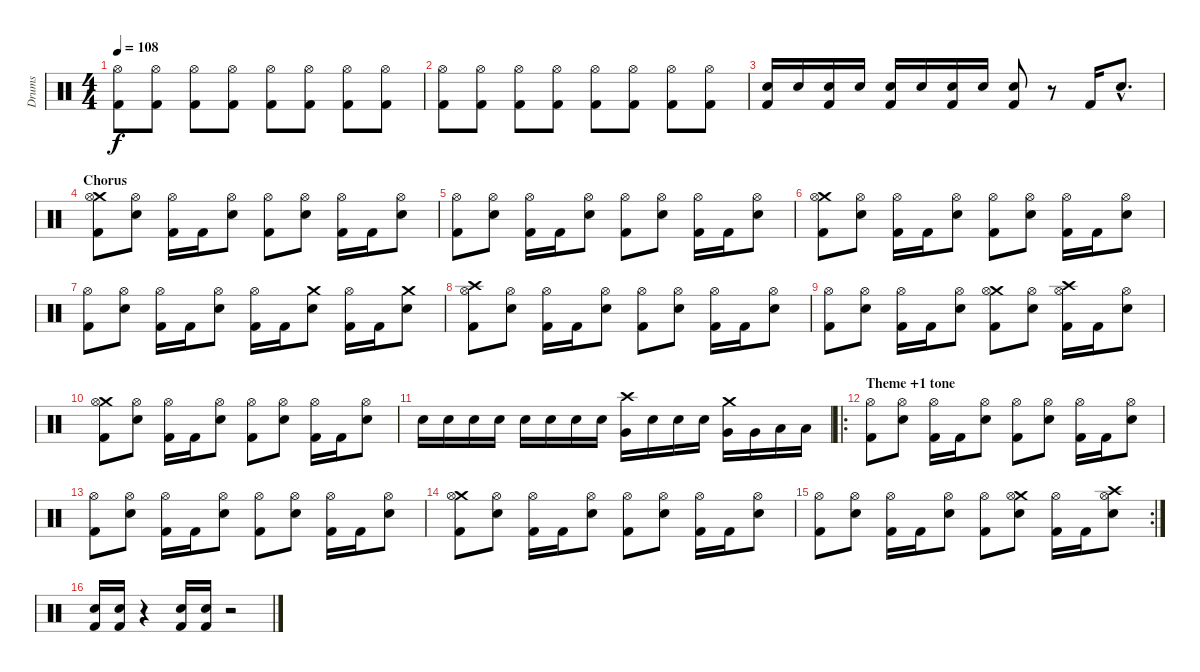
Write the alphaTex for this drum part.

\track ("Drums" "Drums") {instrument percussion}
\staff {score}
\articulation defaults
\ts (4 4)
\tempo 108
\clef neutral
\ks c
("Hi-Hat (open)" "Kick (hit) 2").8{dy f} ("Hi-Hat (open)" "Kick (hit) 2").8 ("Hi-Hat (open)" "Kick (hit) 2").8 ("Hi-Hat (open)" "Kick (hit) 2").8 ("Hi-Hat (open)" "Kick (hit) 2").8 ("Hi-Hat (open)" "Kick (hit) 2").8 ("Hi-Hat (open)" "Kick (hit) 2").8 ("Hi-Hat (open)" "Kick (hit) 2").8 |
("Hi-Hat (open)" "Kick (hit) 2").8 ("Hi-Hat (open)" "Kick (hit) 2").8 ("Hi-Hat (open)" "Kick (hit) 2").8 ("Hi-Hat (open)" "Kick (hit) 2").8 ("Hi-Hat (open)" "Kick (hit) 2").8 ("Hi-Hat (open)" "Kick (hit) 2").8 ("Hi-Hat (open)" "Kick (hit) 2").8 ("Hi-Hat (open)" "Kick (hit) 2").8 |
("Electric Snare (hit)" "Kick (hit) 2").16 "Electric Snare (hit)".16 ("Electric Snare (hit)" "Kick (hit) 2").16 "Electric Snare (hit)".16 ("Electric Snare (hit)" "Kick (hit) 2").16 "Electric Snare (hit)".16 ("Electric Snare (hit)" "Kick (hit) 2").16 "Electric Snare (hit)".16 ("Electric Snare (hit)" "Kick (hit) 2").8 r.8 "Kick (hit) 2".16 "Electric Snare (hit)"{hac}.8{d} |
\section ("" "Chorus")
("Crash medium (hit)" "Hi-Hat (open)" "Kick (hit) 2").8 ("Hi-Hat (open)" "Electric Snare (hit)").8 ("Hi-Hat (open)" "Kick (hit) 2").16 "Kick (hit) 2".16 ("Hi-Hat (open)" "Electric Snare (hit)").8 ("Hi-Hat (open)" "Kick (hit) 2").8 ("Hi-Hat (open)" "Electric Snare (hit)").8 ("Hi-Hat (open)" "Kick (hit) 2").16 "Kick (hit) 2".16 ("Hi-Hat (open)" "Electric Snare (hit)").8 |
("Hi-Hat (open)" "Kick (hit) 2").8 ("Hi-Hat (open)" "Electric Snare (hit)").8 ("Hi-Hat (open)" "Kick (hit) 2").16 "Kick (hit) 2".16 ("Hi-Hat (open)" "Electric Snare (hit)").8 ("Hi-Hat (open)" "Kick (hit) 2").8 ("Hi-Hat (open)" "Electric Snare (hit)").8 ("Hi-Hat (open)" "Kick (hit) 2").16 "Kick (hit) 2".16 ("Hi-Hat (open)" "Electric Snare (hit)").8 |
("Crash medium (hit)" "Hi-Hat (open)" "Kick (hit) 2").8 ("Hi-Hat (open)" "Electric Snare (hit)").8 ("Hi-Hat (open)" "Kick (hit) 2").16 "Kick (hit) 2".16 ("Hi-Hat (open)" "Electric Snare (hit)").8 ("Hi-Hat (open)" "Kick (hit) 2").8 ("Hi-Hat (open)" "Electric Snare (hit)").8 ("Hi-Hat (open)" "Kick (hit) 2").16 "Kick (hit) 2".16 ("Hi-Hat (open)" "Electric Snare (hit)").8 |
("Hi-Hat (open)" "Kick (hit) 2").8 ("Hi-Hat (open)" "Electric Snare (hit)").8 ("Hi-Hat (open)" "Kick (hit) 2").16 "Kick (hit) 2".16 ("Hi-Hat (open)" "Electric Snare (hit)").8 ("Hi-Hat (open)" "Kick (hit) 2").16 "Kick (hit) 2".16 ("Crash medium (hit)" "Electric Snare (hit)").8 ("Hi-Hat (open)" "Kick (hit) 2").16 "Kick (hit) 2".16 ("Crash medium (hit)" "Electric Snare (hit)").8 |
("Crash high (hit)" "Hi-Hat (open)" "Kick (hit) 2").8 ("Hi-Hat (open)" "Electric Snare (hit)").8 ("Hi-Hat (open)" "Kick (hit) 2").16 "Kick (hit) 2".16 ("Hi-Hat (open)" "Electric Snare (hit)").8 ("Hi-Hat (open)" "Kick (hit) 2").8 ("Hi-Hat (open)" "Electric Snare (hit)").8 ("Hi-Hat (open)" "Kick (hit) 2").16 "Kick (hit) 2".16 ("Hi-Hat (open)" "Electric Snare (hit)").8 |
("Hi-Hat (open)" "Kick (hit) 2").8 ("Hi-Hat (open)" "Electric Snare (hit)").8 ("Hi-Hat (open)" "Kick (hit) 2").16 "Kick (hit) 2".16 ("Hi-Hat (open)" "Electric Snare (hit)").8 ("Crash medium (hit)" "Hi-Hat (open)" "Kick (hit) 2").8 ("Hi-Hat (open)" "Electric Snare (hit)").8 ("Crash high (hit)" "Hi-Hat (open)" "Kick (hit) 2").16 "Kick (hit) 2".16 ("Hi-Hat (open)" "Electric Snare (hit)").8 |
("Crash medium (hit)" "Hi-Hat (open)" "Kick (hit) 2").8 ("Hi-Hat (open)" "Electric Snare (hit)").8 ("Hi-Hat (open)" "Kick (hit) 2").16 "Kick (hit) 2".16 ("Hi-Hat (open)" "Electric Snare (hit)").8 ("Hi-Hat (open)" "Kick (hit) 2").8 ("Hi-Hat (open)" "Electric Snare (hit)").8 ("Hi-Hat (open)" "Kick (hit) 2").16 "Kick (hit) 2".16 ("Hi-Hat (open)" "Electric Snare (hit)").8 |
"Electric Snare (hit)".16 "Electric Snare (hit)".16 "Electric Snare (hit)".16 "Electric Snare (hit)".16 "Electric Snare (hit)".16 "Electric Snare (hit)".16 "Electric Snare (hit)".16 "Electric Snare (hit)".16 ("Crash high (hit)" "Very Low Tom (hit)").16 "Electric Snare (hit)".16 "Electric Snare (hit)".16 "Electric Snare (hit)".16 ("Crash medium (hit)" "Very Low Tom (hit)").16 "Very Low Tom (hit)".16 "Low Floor Tom (hit)".16 "Low Floor Tom (hit)".16 |
\ro
\section ("" "Theme +1 tone")
("Hi-Hat (open)" "Kick (hit) 2").8 ("Hi-Hat (open)" "Electric Snare (hit)").8 ("Hi-Hat (open)" "Kick (hit) 2").16 "Kick (hit) 2".16 ("Hi-Hat (open)" "Electric Snare (hit)").8 ("Hi-Hat (open)" "Kick (hit) 2").8 ("Hi-Hat (open)" "Electric Snare (hit)").8 ("Hi-Hat (open)" "Kick (hit) 2").16 "Kick (hit) 2".16 ("Hi-Hat (open)" "Electric Snare (hit)").8 |
("Hi-Hat (open)" "Kick (hit) 2").8 ("Hi-Hat (open)" "Electric Snare (hit)").8 ("Hi-Hat (open)" "Kick (hit) 2").16 "Kick (hit) 2".16 ("Hi-Hat (open)" "Electric Snare (hit)").8 ("Hi-Hat (open)" "Kick (hit) 2").8 ("Hi-Hat (open)" "Electric Snare (hit)").8 ("Hi-Hat (open)" "Kick (hit) 2").16 "Kick (hit) 2".16 ("Hi-Hat (open)" "Electric Snare (hit)").8 |
("Crash medium (hit)" "Hi-Hat (open)" "Kick (hit) 2").8 ("Hi-Hat (open)" "Electric Snare (hit)").8 ("Hi-Hat (open)" "Kick (hit) 2").16 "Kick (hit) 2".16 ("Hi-Hat (open)" "Electric Snare (hit)").8 ("Hi-Hat (open)" "Kick (hit) 2").8 ("Hi-Hat (open)" "Electric Snare (hit)").8 ("Hi-Hat (open)" "Kick (hit) 2").16 "Kick (hit) 2".16 ("Hi-Hat (open)" "Electric Snare (hit)").8 |
\rc 2
("Hi-Hat (open)" "Kick (hit) 2").8 ("Hi-Hat (open)" "Electric Snare (hit)").8 ("Hi-Hat (open)" "Kick (hit) 2").16 "Kick (hit) 2".16 ("Hi-Hat (open)" "Electric Snare (hit)").8 ("Hi-Hat (open)" "Kick (hit) 2").8 ("Crash medium (hit)" "Hi-Hat (open)" "Electric Snare (hit)").8 ("Hi-Hat (open)" "Kick (hit) 2").16 "Kick (hit) 2".16 ("Crash high (hit)" "Hi-Hat (open)" "Electric Snare (hit)").8 |
("Electric Snare (hit)" "Kick (hit) 2").16 ("Electric Snare (hit)" "Kick (hit) 2").16 r.4 ("Electric Snare (hit)" "Kick (hit) 2").16 ("Electric Snare (hit)" "Kick (hit) 2").16 r.2
